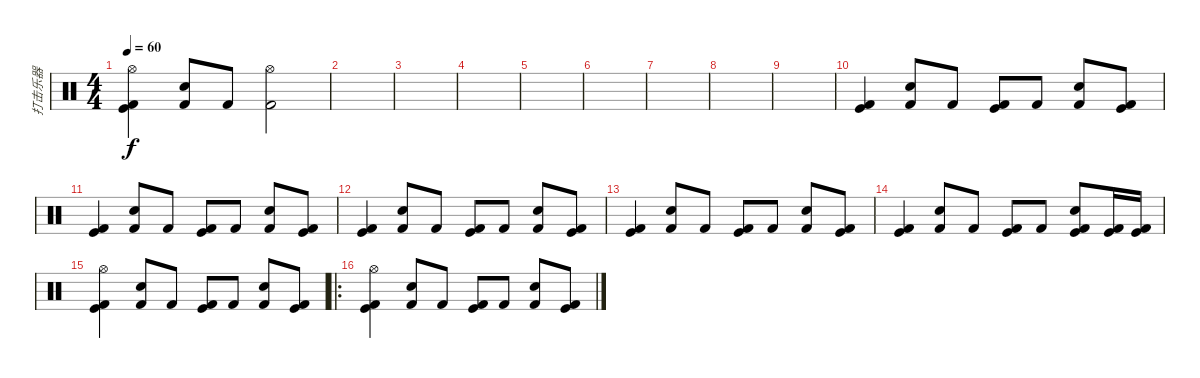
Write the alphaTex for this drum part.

\track ("打击乐器" "打击乐器") {instrument percussion}
\staff {score}
\articulation defaults
\ts (4 4)
\tempo 60
\clef neutral
\ks c
("Kick (hit) 2" "Kick (hit)" "Hi-Hat (open)").4{dy f} ("Kick (hit) 2" "Electric Snare (hit)").8 "Kick (hit) 2".8 ("Hi-Hat (open)" "Kick (hit) 2").2 |
|
|
|
|
|
|
|
|
("Kick (hit) 2" "Kick (hit)").4 ("Kick (hit) 2" "Electric Snare (hit)").8 "Kick (hit) 2".8 ("Kick (hit) 2" "Kick (hit)").8 "Kick (hit) 2".8 ("Kick (hit) 2" "Electric Snare (hit)").8 ("Kick (hit) 2" "Kick (hit)").8 |
("Kick (hit) 2" "Kick (hit)").4 ("Kick (hit) 2" "Electric Snare (hit)").8 "Kick (hit) 2".8 ("Kick (hit) 2" "Kick (hit)").8 "Kick (hit) 2".8 ("Kick (hit) 2" "Electric Snare (hit)").8 ("Kick (hit) 2" "Kick (hit)").8 |
("Kick (hit) 2" "Kick (hit)").4 ("Kick (hit) 2" "Electric Snare (hit)").8 "Kick (hit) 2".8 ("Kick (hit) 2" "Kick (hit)").8 "Kick (hit) 2".8 ("Kick (hit) 2" "Electric Snare (hit)").8 ("Kick (hit) 2" "Kick (hit)").8 |
("Kick (hit) 2" "Kick (hit)").4 ("Kick (hit) 2" "Electric Snare (hit)").8 "Kick (hit) 2".8 ("Kick (hit) 2" "Kick (hit)").8 "Kick (hit) 2".8 ("Kick (hit) 2" "Electric Snare (hit)").8 ("Kick (hit) 2" "Kick (hit)").8 |
("Kick (hit) 2" "Kick (hit)").4 ("Kick (hit) 2" "Electric Snare (hit)").8 "Kick (hit) 2".8 ("Kick (hit) 2" "Kick (hit)").8 "Kick (hit) 2".8 ("Kick (hit) 2" "Kick (hit)" "Electric Snare (hit)").8 ("Kick (hit) 2" "Kick (hit)").16 ("Kick (hit) 2" "Kick (hit)").16 |
("Kick (hit) 2" "Kick (hit)" "Hi-Hat (open)").4 ("Kick (hit) 2" "Electric Snare (hit)").8 "Kick (hit) 2".8 ("Kick (hit) 2" "Kick (hit)").8 "Kick (hit) 2".8 ("Kick (hit) 2" "Electric Snare (hit)").8 ("Kick (hit) 2" "Kick (hit)").8 |
\ro
("Kick (hit) 2" "Kick (hit)" "Hi-Hat (open)").4 ("Kick (hit) 2" "Electric Snare (hit)").8 "Kick (hit) 2".8 ("Kick (hit) 2" "Kick (hit)").8 "Kick (hit) 2".8 ("Kick (hit) 2" "Electric Snare (hit)").8 ("Kick (hit) 2" "Kick (hit)").8
